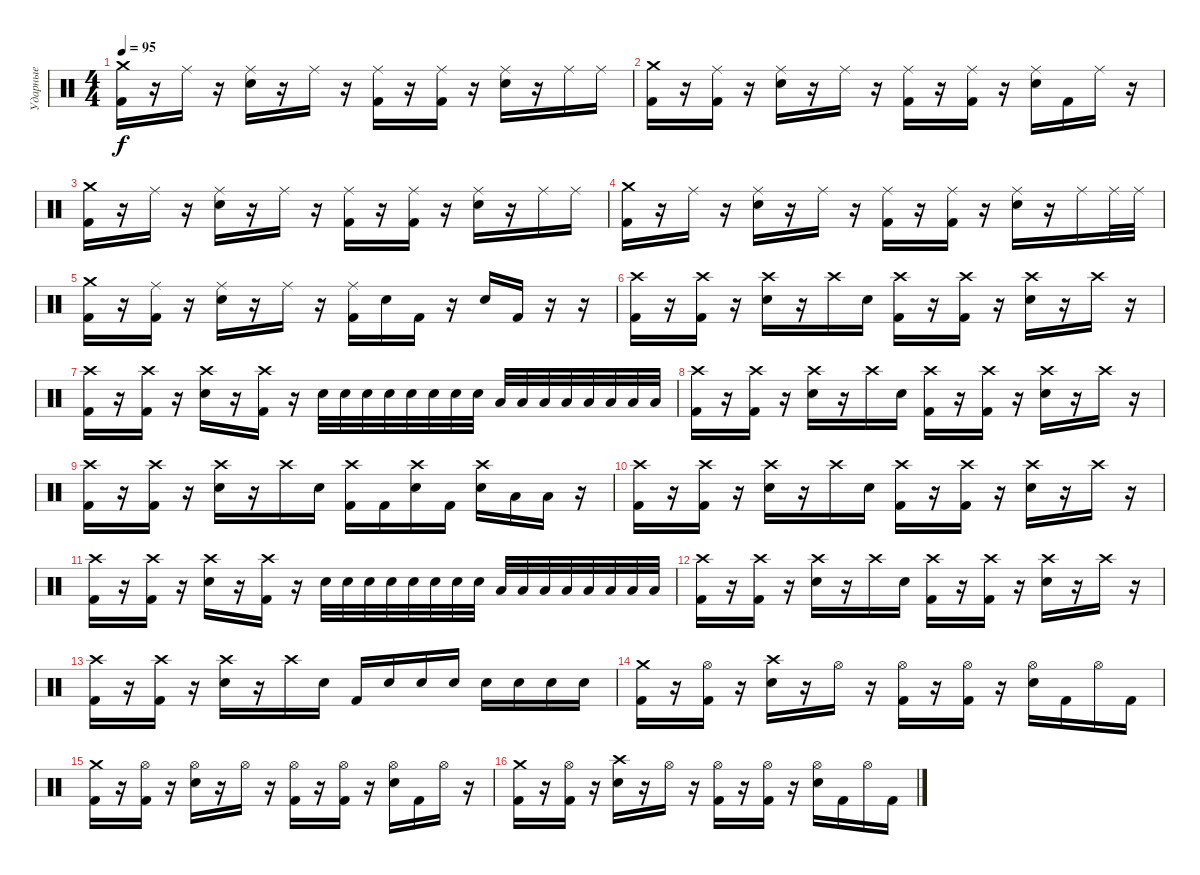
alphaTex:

\track ("Ударные" "Ударные") {instrument percussion}
\staff {score}
\articulation defaults
\ts (4 4)
\tempo 95
\clef neutral
\ks c
("Crash medium (hit)" "Kick (hit) 2").16{dy f} r.16 "Ride (middle)".16 r.16 ("Ride (middle)" "Electric Snare (hit)").16 r.16 "Ride (middle)".16 r.16 ("Ride (middle)" "Kick (hit) 2").16 r.16 ("Ride (middle)" "Kick (hit) 2").16 r.16 ("Ride (middle)" "Electric Snare (hit)").16 r.16 "Ride (middle)".16 "Ride (middle)".16 |
("Crash medium (hit)" "Kick (hit) 2").16 r.16 ("Ride (middle)" "Kick (hit) 2").16 r.16 ("Ride (middle)" "Electric Snare (hit)").16 r.16 "Ride (middle)".16 r.16 ("Ride (middle)" "Kick (hit) 2").16 r.16 ("Ride (middle)" "Kick (hit) 2").16 r.16 ("Ride (middle)" "Electric Snare (hit)").16 "Kick (hit) 2".16 "Ride (middle)".16 r.16 |
("Crash medium (hit)" "Kick (hit) 2").16 r.16 "Ride (middle)".16 r.16 ("Ride (middle)" "Electric Snare (hit)").16 r.16 "Ride (middle)".16 r.16 ("Ride (middle)" "Kick (hit) 2").16 r.16 ("Ride (middle)" "Kick (hit) 2").16 r.16 ("Ride (middle)" "Electric Snare (hit)").16 r.16 "Ride (middle)".16 "Ride (middle)".16 |
("Crash medium (hit)" "Kick (hit) 2").16 r.16 "Ride (middle)".16 r.16 ("Ride (middle)" "Electric Snare (hit)").16 r.16 "Ride (middle)".16 r.16 ("Ride (middle)" "Kick (hit) 2").16 r.16 ("Ride (middle)" "Kick (hit) 2").16 r.16 ("Ride (middle)" "Electric Snare (hit)").16 r.16 "Ride (middle)".16 "Ride (middle)".32 "Ride (middle)".32 |
("Crash medium (hit)" "Kick (hit) 2").16 r.16 ("Ride (middle)" "Kick (hit) 2").16 r.16 ("Ride (middle)" "Electric Snare (hit)").16 r.16 "Ride (middle)".16 r.16 ("Ride (middle)" "Kick (hit) 2").16 "Electric Snare (hit)".16 "Kick (hit) 2".16 r.16 "Electric Snare (hit)".16 "Kick (hit) 2".16 r.16 r.16 |
("Crash high (hit)" "Kick (hit) 2").16 r.16 ("Crash high (hit)" "Kick (hit) 2").16 r.16 ("Crash high (hit)" "Electric Snare (hit)").16 r.16 "Crash high (hit)".16 "Electric Snare (hit)".16 ("Crash high (hit)" "Kick (hit) 2").16 r.16 ("Crash high (hit)" "Kick (hit) 2").16 r.16 ("Crash high (hit)" "Electric Snare (hit)").16 r.16 "Crash high (hit)".16 r.16 |
("Crash high (hit)" "Kick (hit) 2").16 r.16 ("Crash high (hit)" "Kick (hit) 2").16 r.16 ("Crash high (hit)" "Electric Snare (hit)").16 r.16 ("Crash high (hit)" "Kick (hit) 2").16 r.16 "Electric Snare (hit)".32 "Electric Snare (hit)".32 "Electric Snare (hit)".32 "Electric Snare (hit)".32 "Electric Snare (hit)".32 "Electric Snare (hit)".32 "Electric Snare (hit)".32 "Electric Snare (hit)".32 "Low Tom (hit)".32 "Low Tom (hit)".32 "Low Tom (hit)".32 "Low Tom (hit)".32 "Low Tom (hit)".32 "Low Tom (hit)".32 "Low Tom (hit)".32 "Low Tom (hit)".32 |
("Crash high (hit)" "Kick (hit) 2").16 r.16 ("Crash high (hit)" "Kick (hit) 2").16 r.16 ("Crash high (hit)" "Electric Snare (hit)").16 r.16 "Crash high (hit)".16 "Electric Snare (hit)".16 ("Crash high (hit)" "Kick (hit) 2").16 r.16 ("Crash high (hit)" "Kick (hit) 2").16 r.16 ("Crash high (hit)" "Electric Snare (hit)").16 r.16 "Crash high (hit)".16 r.16 |
("Crash high (hit)" "Kick (hit) 2").16 r.16 ("Crash high (hit)" "Kick (hit) 2").16 r.16 ("Crash high (hit)" "Electric Snare (hit)").16 r.16 "Crash high (hit)".16 "Electric Snare (hit)".16 ("Crash high (hit)" "Kick (hit) 2").16 "Kick (hit) 2".16 ("Crash high (hit)" "Electric Snare (hit)").16 "Kick (hit) 2".16 ("Crash high (hit)" "Electric Snare (hit)").16 "Low Tom (hit)".16 "Low Tom (hit)".16 r.16 |
("Crash high (hit)" "Kick (hit) 2").16 r.16 ("Crash high (hit)" "Kick (hit) 2").16 r.16 ("Crash high (hit)" "Electric Snare (hit)").16 r.16 "Crash high (hit)".16 "Electric Snare (hit)".16 ("Crash high (hit)" "Kick (hit) 2").16 r.16 ("Crash high (hit)" "Kick (hit) 2").16 r.16 ("Crash high (hit)" "Electric Snare (hit)").16 r.16 "Crash high (hit)".16 r.16 |
("Crash high (hit)" "Kick (hit) 2").16 r.16 ("Crash high (hit)" "Kick (hit) 2").16 r.16 ("Crash high (hit)" "Electric Snare (hit)").16 r.16 ("Crash high (hit)" "Kick (hit) 2").16 r.16 "Electric Snare (hit)".32 "Electric Snare (hit)".32 "Electric Snare (hit)".32 "Electric Snare (hit)".32 "Electric Snare (hit)".32 "Electric Snare (hit)".32 "Electric Snare (hit)".32 "Electric Snare (hit)".32 "Low Tom (hit)".32 "Low Tom (hit)".32 "Low Tom (hit)".32 "Low Tom (hit)".32 "Low Tom (hit)".32 "Low Tom (hit)".32 "Low Tom (hit)".32 "Low Tom (hit)".32 |
("Crash high (hit)" "Kick (hit) 2").16 r.16 ("Crash high (hit)" "Kick (hit) 2").16 r.16 ("Crash high (hit)" "Electric Snare (hit)").16 r.16 "Crash high (hit)".16 "Electric Snare (hit)".16 ("Crash high (hit)" "Kick (hit) 2").16 r.16 ("Crash high (hit)" "Kick (hit) 2").16 r.16 ("Crash high (hit)" "Electric Snare (hit)").16 r.16 "Crash high (hit)".16 r.16 |
("Crash high (hit)" "Kick (hit) 2").16 r.16 ("Crash high (hit)" "Kick (hit) 2").16 r.16 ("Crash high (hit)" "Electric Snare (hit)").16 r.16 "Crash high (hit)".16 "Electric Snare (hit)".16 "Kick (hit) 2".16 "Electric Snare (hit)".16 "Electric Snare (hit)".16 "Electric Snare (hit)".16 "Electric Snare (hit)".16 "Electric Snare (hit)".16 "Electric Snare (hit)".16 "Electric Snare (hit)".16 |
("Crash medium (hit)" "Kick (hit) 2").16 r.16 ("Hi-Hat (open)" "Kick (hit) 2").16 r.16 ("Crash high (hit)" "Electric Snare (hit)").16 r.16 "Hi-Hat (open)".16 r.16 ("Hi-Hat (open)" "Kick (hit) 2").16 r.16 ("Hi-Hat (open)" "Kick (hit) 2").16 r.16 ("Hi-Hat (open)" "Electric Snare (hit)").16 "Kick (hit) 2".16 "Hi-Hat (open)".16 "Kick (hit) 2".16 |
("Crash medium (hit)" "Kick (hit) 2").16 r.16 ("Hi-Hat (open)" "Kick (hit) 2").16 r.16 ("Hi-Hat (open)" "Electric Snare (hit)").16 r.16 "Hi-Hat (open)".16 r.16 ("Hi-Hat (open)" "Kick (hit) 2").16 r.16 ("Hi-Hat (open)" "Kick (hit) 2").16 r.16 ("Hi-Hat (open)" "Electric Snare (hit)").16 "Kick (hit) 2".16 "Hi-Hat (open)".16 r.16 |
("Crash medium (hit)" "Kick (hit) 2").16 r.16 ("Hi-Hat (open)" "Kick (hit) 2").16 r.16 ("Crash high (hit)" "Electric Snare (hit)").16 r.16 "Hi-Hat (open)".16 r.16 ("Hi-Hat (open)" "Kick (hit) 2").16 r.16 ("Hi-Hat (open)" "Kick (hit) 2").16 r.16 ("Hi-Hat (open)" "Electric Snare (hit)").16 "Kick (hit) 2".16 "Hi-Hat (open)".16 "Kick (hit) 2".16
